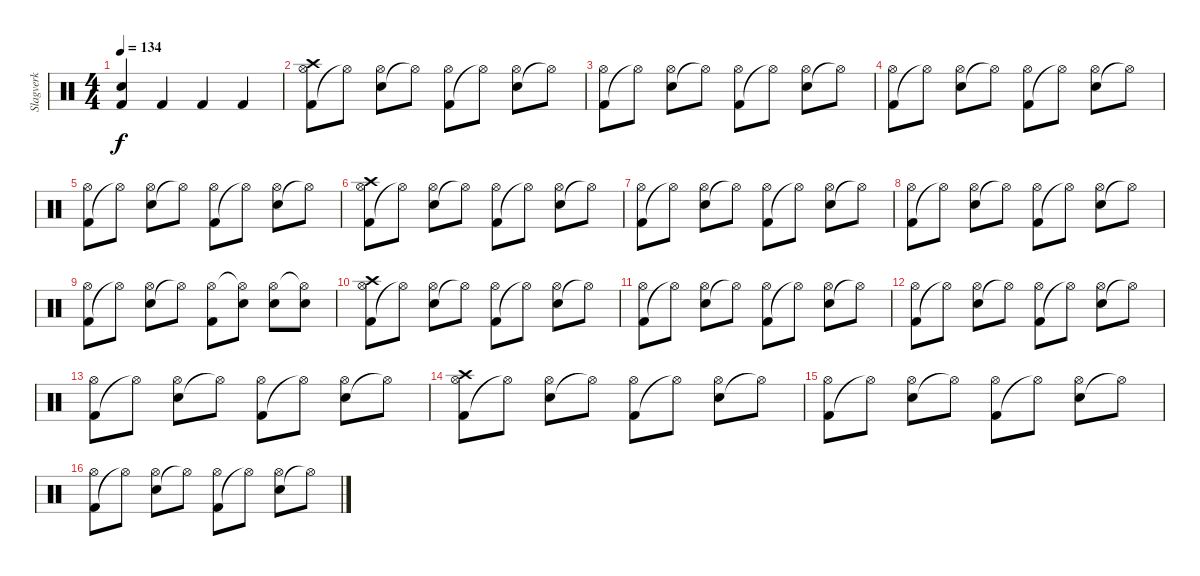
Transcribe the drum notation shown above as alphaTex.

\track ("Slagverk" "Slagverk") {instrument percussion}
\staff {score}
\articulation defaults
\ts (4 4)
\tempo 134
\clef neutral
\ks c
("Kick (hit) 2" "Electric Snare (hit)").4{dy f} "Kick (hit) 2".4 "Kick (hit) 2".4 "Kick (hit) 2".4 |
("Kick (hit) 2" "Hi-Hat (open)" "Crash high (hit)").8 "Hi-Hat (open)"{t}.8 ("Electric Snare (hit)" "Hi-Hat (open)").8 "Hi-Hat (open)"{t}.8 ("Kick (hit) 2" "Hi-Hat (open)").8 "Hi-Hat (open)"{t}.8 ("Electric Snare (hit)" "Hi-Hat (open)").8 "Hi-Hat (open)"{t}.8 |
("Kick (hit) 2" "Hi-Hat (open)").8 "Hi-Hat (open)"{t}.8 ("Electric Snare (hit)" "Hi-Hat (open)").8 "Hi-Hat (open)"{t}.8 ("Kick (hit) 2" "Hi-Hat (open)").8 "Hi-Hat (open)"{t}.8 ("Electric Snare (hit)" "Hi-Hat (open)").8 "Hi-Hat (open)"{t}.8 |
("Kick (hit) 2" "Hi-Hat (open)").8 "Hi-Hat (open)"{t}.8 ("Electric Snare (hit)" "Hi-Hat (open)").8 "Hi-Hat (open)"{t}.8 ("Kick (hit) 2" "Hi-Hat (open)").8 "Hi-Hat (open)"{t}.8 ("Electric Snare (hit)" "Hi-Hat (open)").8 "Hi-Hat (open)"{t}.8 |
("Kick (hit) 2" "Hi-Hat (open)").8 "Hi-Hat (open)"{t}.8 ("Electric Snare (hit)" "Hi-Hat (open)").8 "Hi-Hat (open)"{t}.8 ("Kick (hit) 2" "Hi-Hat (open)").8 "Hi-Hat (open)"{t}.8 ("Electric Snare (hit)" "Hi-Hat (open)").8 "Hi-Hat (open)"{t}.8 |
("Kick (hit) 2" "Hi-Hat (open)" "Crash high (hit)").8 "Hi-Hat (open)"{t}.8 ("Electric Snare (hit)" "Hi-Hat (open)").8 "Hi-Hat (open)"{t}.8 ("Kick (hit) 2" "Hi-Hat (open)").8 "Hi-Hat (open)"{t}.8 ("Electric Snare (hit)" "Hi-Hat (open)").8 "Hi-Hat (open)"{t}.8 |
("Kick (hit) 2" "Hi-Hat (open)").8 "Hi-Hat (open)"{t}.8 ("Electric Snare (hit)" "Hi-Hat (open)").8 "Hi-Hat (open)"{t}.8 ("Kick (hit) 2" "Hi-Hat (open)").8 "Hi-Hat (open)"{t}.8 ("Electric Snare (hit)" "Hi-Hat (open)").8 "Hi-Hat (open)"{t}.8 |
("Kick (hit) 2" "Hi-Hat (open)").8 "Hi-Hat (open)"{t}.8 ("Electric Snare (hit)" "Hi-Hat (open)").8 "Hi-Hat (open)"{t}.8 ("Kick (hit) 2" "Hi-Hat (open)").8 "Hi-Hat (open)"{t}.8 ("Electric Snare (hit)" "Hi-Hat (open)").8 "Hi-Hat (open)"{t}.8 |
("Kick (hit) 2" "Hi-Hat (open)").8 "Hi-Hat (open)"{t}.8 ("Electric Snare (hit)" "Hi-Hat (open)").8 "Hi-Hat (open)"{t}.8 ("Kick (hit) 2" "Hi-Hat (open)").8 ("Electric Snare (hit)" "Hi-Hat (open)"{t}).8 ("Electric Snare (hit)" "Hi-Hat (open)").8 ("Electric Snare (hit)" "Hi-Hat (open)"{t}).8 |
("Kick (hit) 2" "Hi-Hat (open)" "Crash high (hit)").8 "Hi-Hat (open)"{t}.8 ("Electric Snare (hit)" "Hi-Hat (open)").8 "Hi-Hat (open)"{t}.8 ("Kick (hit) 2" "Hi-Hat (open)").8 "Hi-Hat (open)"{t}.8 ("Electric Snare (hit)" "Hi-Hat (open)").8 "Hi-Hat (open)"{t}.8 |
("Kick (hit) 2" "Hi-Hat (open)").8 "Hi-Hat (open)"{t}.8 ("Electric Snare (hit)" "Hi-Hat (open)").8 "Hi-Hat (open)"{t}.8 ("Kick (hit) 2" "Hi-Hat (open)").8 "Hi-Hat (open)"{t}.8 ("Electric Snare (hit)" "Hi-Hat (open)").8 "Hi-Hat (open)"{t}.8 |
("Kick (hit) 2" "Hi-Hat (open)").8 "Hi-Hat (open)"{t}.8 ("Electric Snare (hit)" "Hi-Hat (open)").8 "Hi-Hat (open)"{t}.8 ("Kick (hit) 2" "Hi-Hat (open)").8 "Hi-Hat (open)"{t}.8 ("Electric Snare (hit)" "Hi-Hat (open)").8 "Hi-Hat (open)"{t}.8 |
("Kick (hit) 2" "Hi-Hat (open)").8 "Hi-Hat (open)"{t}.8 ("Electric Snare (hit)" "Hi-Hat (open)").8 "Hi-Hat (open)"{t}.8 ("Kick (hit) 2" "Hi-Hat (open)").8 "Hi-Hat (open)"{t}.8 ("Electric Snare (hit)" "Hi-Hat (open)").8 "Hi-Hat (open)"{t}.8 |
("Kick (hit) 2" "Hi-Hat (open)" "Crash high (hit)").8 "Hi-Hat (open)"{t}.8 ("Electric Snare (hit)" "Hi-Hat (open)").8 "Hi-Hat (open)"{t}.8 ("Kick (hit) 2" "Hi-Hat (open)").8 "Hi-Hat (open)"{t}.8 ("Electric Snare (hit)" "Hi-Hat (open)").8 "Hi-Hat (open)"{t}.8 |
("Kick (hit) 2" "Hi-Hat (open)").8 "Hi-Hat (open)"{t}.8 ("Electric Snare (hit)" "Hi-Hat (open)").8 "Hi-Hat (open)"{t}.8 ("Kick (hit) 2" "Hi-Hat (open)").8 "Hi-Hat (open)"{t}.8 ("Electric Snare (hit)" "Hi-Hat (open)").8 "Hi-Hat (open)"{t}.8 |
("Kick (hit) 2" "Hi-Hat (open)").8 "Hi-Hat (open)"{t}.8 ("Electric Snare (hit)" "Hi-Hat (open)").8 "Hi-Hat (open)"{t}.8 ("Kick (hit) 2" "Hi-Hat (open)").8 "Hi-Hat (open)"{t}.8 ("Electric Snare (hit)" "Hi-Hat (open)").8 "Hi-Hat (open)"{t}.8
